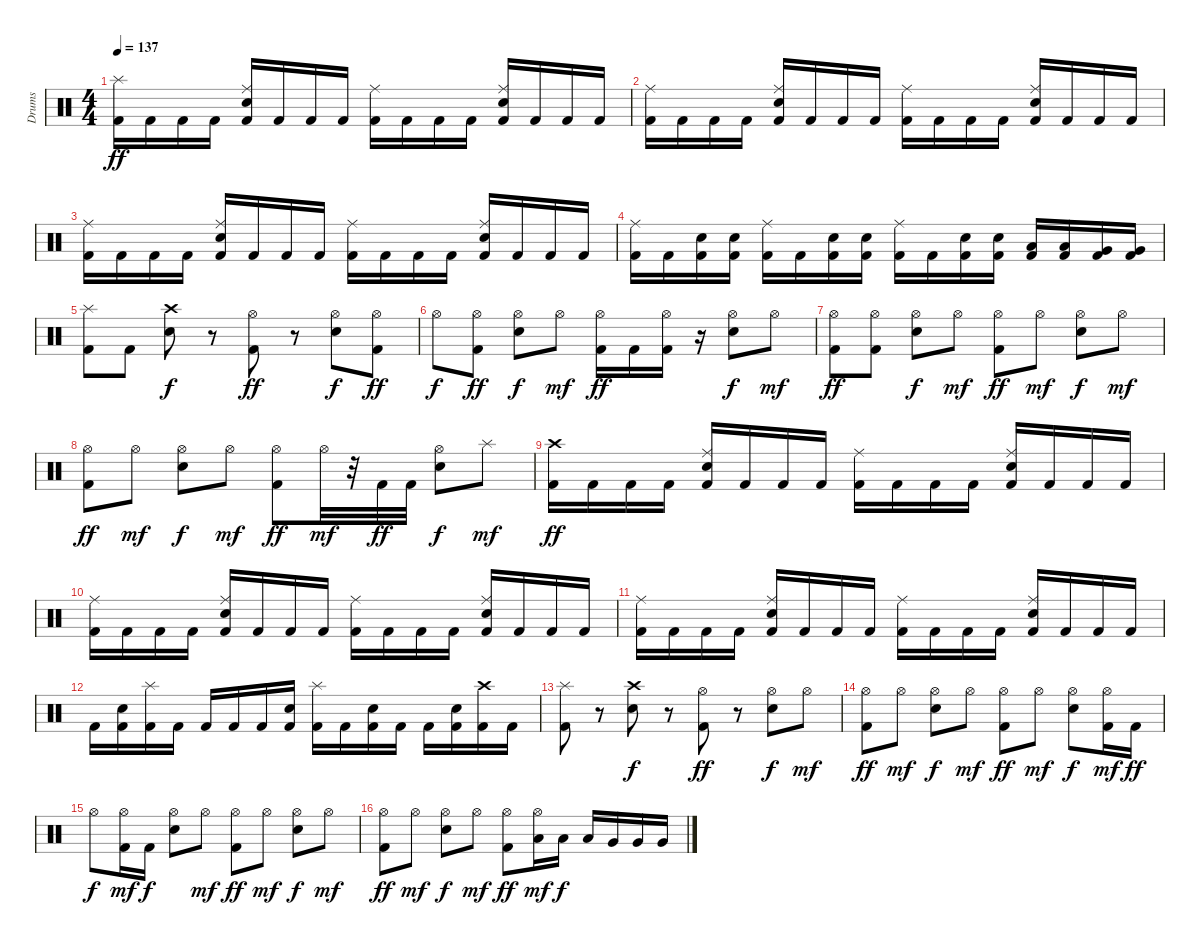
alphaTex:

\track ("Drums" "Drums") {instrument percussion}
\staff {score}
\articulation defaults
\ts (4 4)
\tempo 137
\clef neutral
\ks c
("Splash (hit)" "Kick (hit) 2").16{dy ff} "Kick (hit) 2".16 "Kick (hit) 2".16 "Kick (hit) 2".16 ("Ride (middle)" "Electric Snare (hit)" "Kick (hit) 2").16 "Kick (hit) 2".16 "Kick (hit) 2".16 "Kick (hit) 2".16 ("Ride (middle)" "Kick (hit) 2").16 "Kick (hit) 2".16 "Kick (hit) 2".16 "Kick (hit) 2".16 ("Ride (middle)" "Electric Snare (hit)" "Kick (hit) 2").16 "Kick (hit) 2".16 "Kick (hit) 2".16 "Kick (hit) 2".16 |
("Ride (middle)" "Kick (hit) 2").16 "Kick (hit) 2".16 "Kick (hit) 2".16 "Kick (hit) 2".16 ("Ride (middle)" "Electric Snare (hit)" "Kick (hit) 2").16 "Kick (hit) 2".16 "Kick (hit) 2".16 "Kick (hit) 2".16 ("Ride (middle)" "Kick (hit) 2").16 "Kick (hit) 2".16 "Kick (hit) 2".16 "Kick (hit) 2".16 ("Ride (middle)" "Electric Snare (hit)" "Kick (hit) 2").16 "Kick (hit) 2".16 "Kick (hit) 2".16 "Kick (hit) 2".16 |
("Ride (middle)" "Kick (hit) 2").16 "Kick (hit) 2".16 "Kick (hit) 2".16 "Kick (hit) 2".16 ("Ride (middle)" "Electric Snare (hit)" "Kick (hit) 2").16 "Kick (hit) 2".16 "Kick (hit) 2".16 "Kick (hit) 2".16 ("Ride (middle)" "Kick (hit) 2").16 "Kick (hit) 2".16 "Kick (hit) 2".16 "Kick (hit) 2".16 ("Ride (middle)" "Electric Snare (hit)" "Kick (hit) 2").16 "Kick (hit) 2".16 "Kick (hit) 2".16 "Kick (hit) 2".16 |
("Ride (middle)" "Kick (hit) 2").16 "Kick (hit) 2".16 ("Electric Snare (hit)" "Kick (hit) 2").16 ("Electric Snare (hit)" "Kick (hit) 2").16 ("Ride (middle)" "Kick (hit) 2").16 "Kick (hit) 2".16 ("Electric Snare (hit)" "Kick (hit) 2").16 ("Electric Snare (hit)" "Kick (hit) 2").16 ("Ride (middle)" "Kick (hit) 2").16 "Kick (hit) 2".16 ("Electric Snare (hit)" "Kick (hit) 2").16 ("Electric Snare (hit)" "Kick (hit) 2").16 ("Low Tom (hit)" "Kick (hit) 2").16 ("Low Tom (hit)" "Kick (hit) 2").16 ("Very Low Tom (hit)" "Kick (hit) 2").16 ("Very Low Tom (hit)" "Kick (hit) 2").16 |
("Splash (hit)" "Kick (hit) 2").8 "Kick (hit) 2".8 ("Crash high (hit)" "Electric Snare (hit)").8{dy f} r.8 ("Hi-Hat (open)" "Kick (hit) 2").8{dy ff} r.8 ("Hi-Hat (open)" "Electric Snare (hit)").8{dy f} ("Hi-Hat (open)" "Kick (hit) 2").8{dy ff} |
"Hi-Hat (open)".8{dy f} ("Hi-Hat (open)" "Kick (hit) 2").8{dy ff} ("Hi-Hat (open)" "Electric Snare (hit)").8{dy f} "Hi-Hat (open)".8{dy mf} ("Hi-Hat (open)" "Kick (hit) 2").16{dy ff} "Kick (hit) 2".16 ("Hi-Hat (open)" "Kick (hit) 2").16 r.16 ("Hi-Hat (open)" "Electric Snare (hit)").8{dy f} "Hi-Hat (open)".8{dy mf} |
("Hi-Hat (open)" "Kick (hit) 2").8{dy ff} ("Hi-Hat (open)" "Kick (hit) 2").8 ("Hi-Hat (open)" "Electric Snare (hit)").8{dy f} "Hi-Hat (open)".8{dy mf} ("Hi-Hat (open)" "Kick (hit) 2").8{dy ff} "Hi-Hat (open)".8{dy mf} ("Hi-Hat (open)" "Electric Snare (hit)").8{dy f} "Hi-Hat (open)".8{dy mf} |
("Hi-Hat (open)" "Kick (hit) 2").8{dy ff} "Hi-Hat (open)".8{dy mf} ("Hi-Hat (open)" "Electric Snare (hit)").8{dy f} "Hi-Hat (open)".8{dy mf} ("Hi-Hat (open)" "Kick (hit) 2").8{dy ff} "Hi-Hat (open)".32{dy mf} r.32 "Kick (hit) 2".32{dy ff} "Kick (hit) 2".32 ("Hi-Hat (open)" "Electric Snare (hit)").8{dy f} "Splash (hit)".8{dy mf} |
("Crash high (hit)" "Kick (hit) 2").16{dy ff} "Kick (hit) 2".16 "Kick (hit) 2".16 "Kick (hit) 2".16 ("Ride (middle)" "Electric Snare (hit)" "Kick (hit) 2").16 "Kick (hit) 2".16 "Kick (hit) 2".16 "Kick (hit) 2".16 ("Ride (middle)" "Kick (hit) 2").16 "Kick (hit) 2".16 "Kick (hit) 2".16 "Kick (hit) 2".16 ("Ride (middle)" "Electric Snare (hit)" "Kick (hit) 2").16 "Kick (hit) 2".16 "Kick (hit) 2".16 "Kick (hit) 2".16 |
("Ride (middle)" "Kick (hit) 2").16 "Kick (hit) 2".16 "Kick (hit) 2".16 "Kick (hit) 2".16 ("Ride (middle)" "Electric Snare (hit)" "Kick (hit) 2").16 "Kick (hit) 2".16 "Kick (hit) 2".16 "Kick (hit) 2".16 ("Ride (middle)" "Kick (hit) 2").16 "Kick (hit) 2".16 "Kick (hit) 2".16 "Kick (hit) 2".16 ("Ride (middle)" "Electric Snare (hit)" "Kick (hit) 2").16 "Kick (hit) 2".16 "Kick (hit) 2".16 "Kick (hit) 2".16 |
("Ride (middle)" "Kick (hit) 2").16 "Kick (hit) 2".16 "Kick (hit) 2".16 "Kick (hit) 2".16 ("Ride (middle)" "Electric Snare (hit)" "Kick (hit) 2").16 "Kick (hit) 2".16 "Kick (hit) 2".16 "Kick (hit) 2".16 ("Ride (middle)" "Kick (hit) 2").16 "Kick (hit) 2".16 "Kick (hit) 2".16 "Kick (hit) 2".16 ("Ride (middle)" "Electric Snare (hit)" "Kick (hit) 2").16 "Kick (hit) 2".16 "Kick (hit) 2".16 "Kick (hit) 2".16 |
"Kick (hit) 2".16 ("Electric Snare (hit)" "Kick (hit) 2").16 ("Splash (hit)" "Kick (hit) 2").16 "Kick (hit) 2".16 "Kick (hit) 2".16 "Kick (hit) 2".16 "Kick (hit) 2".16 ("Electric Snare (hit)" "Kick (hit) 2").16 ("Splash (hit)" "Kick (hit) 2").16 "Kick (hit) 2".16 ("Electric Snare (hit)" "Kick (hit) 2").16 "Kick (hit) 2".16 "Kick (hit) 2".16 ("Electric Snare (hit)" "Kick (hit) 2").16 ("Crash high (hit)" "Kick (hit) 2").16 "Kick (hit) 2".16 |
("Splash (hit)" "Kick (hit) 2").8 r.8 ("Crash high (hit)" "Electric Snare (hit)").8{dy f} r.8 ("Hi-Hat (open)" "Kick (hit) 2").8{dy ff} r.8 ("Hi-Hat (open)" "Electric Snare (hit)").8{dy f} "Hi-Hat (open)".8{dy mf} |
("Hi-Hat (open)" "Kick (hit) 2").8{dy ff} "Hi-Hat (open)".8{dy mf} ("Hi-Hat (open)" "Electric Snare (hit)").8{dy f} "Hi-Hat (open)".8{dy mf} ("Hi-Hat (open)" "Kick (hit) 2").8{dy ff} "Hi-Hat (open)".8{dy mf} ("Hi-Hat (open)" "Electric Snare (hit)").8{dy f} ("Hi-Hat (open)" "Kick (hit) 2").16{dy mf} "Kick (hit) 2".16{dy ff} |
"Hi-Hat (open)".8{dy f} ("Hi-Hat (open)" "Kick (hit) 2").16{dy mf} "Kick (hit) 2".16{dy f} ("Hi-Hat (open)" "Electric Snare (hit)").8 "Hi-Hat (open)".8{dy mf} ("Hi-Hat (open)" "Kick (hit) 2").8{dy ff} "Hi-Hat (open)".8{dy mf} ("Hi-Hat (open)" "Electric Snare (hit)").8{dy f} "Hi-Hat (open)".8{dy mf} |
("Hi-Hat (open)" "Kick (hit) 2").8{dy ff} "Hi-Hat (open)".8{dy mf} ("Hi-Hat (open)" "Electric Snare (hit)").8{dy f} "Hi-Hat (open)".8{dy mf} ("Hi-Hat (open)" "Kick (hit) 2").8{dy ff} ("Hi-Hat (open)" "Low Tom (hit)").16{dy mf} "Low Tom (hit)".16{dy f} "Low Tom (hit)".16 "Very Low Tom (hit)".16 "Very Low Tom (hit)".16 "Very Low Tom (hit)".16
